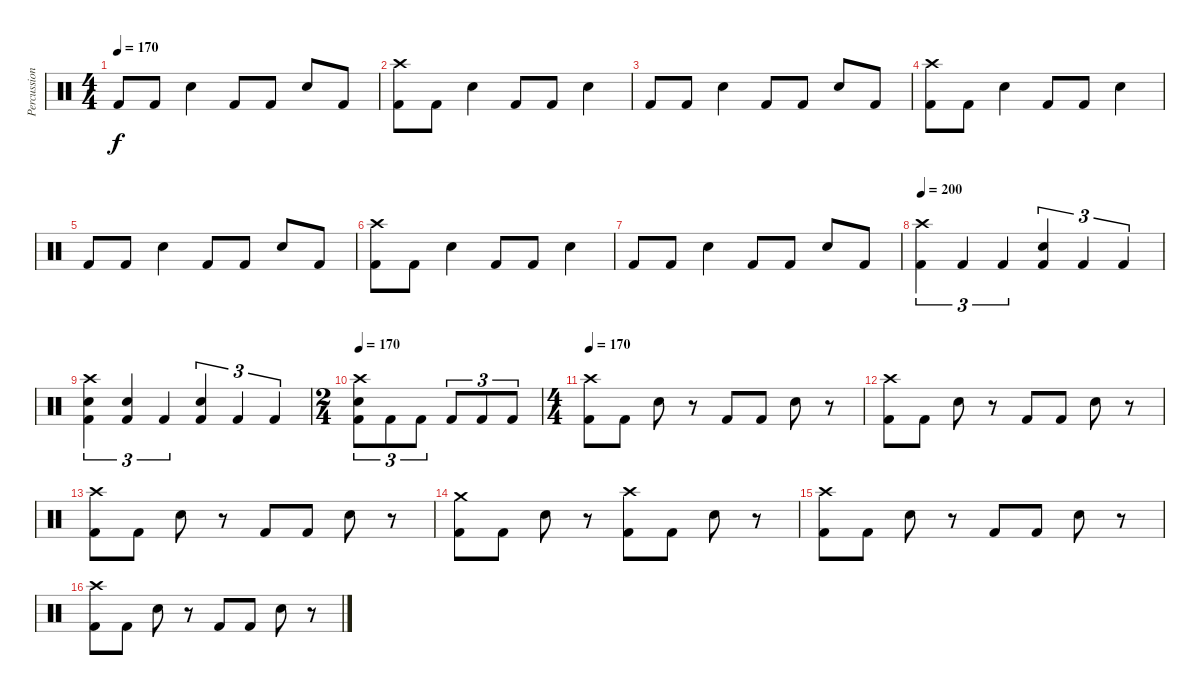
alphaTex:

\track ("Percussion" "Percussion") {instrument percussion}
\staff {score}
\articulation defaults
\ts (4 4)
\tempo 170
\clef neutral
\ks c "Kick (hit) 2".8{dy f} "Kick (hit) 2".8 "Electric Snare (hit)".4 "Kick (hit) 2".8 "Kick (hit) 2".8 "Electric Snare (hit)".8 "Kick (hit) 2".8
|
("Crash high (hit)" "Kick (hit) 2").8 "Kick (hit) 2".8 "Electric Snare (hit)".4 "Kick (hit) 2".8 "Kick (hit) 2".8 "Electric Snare (hit)".4 |
"Kick (hit) 2".8 "Kick (hit) 2".8 "Electric Snare (hit)".4 "Kick (hit) 2".8 "Kick (hit) 2".8 "Electric Snare (hit)".8 "Kick (hit) 2".8 |
("Crash high (hit)" "Kick (hit) 2").8 "Kick (hit) 2".8 "Electric Snare (hit)".4 "Kick (hit) 2".8 "Kick (hit) 2".8 "Electric Snare (hit)".4 |
"Kick (hit) 2".8 "Kick (hit) 2".8 "Electric Snare (hit)".4 "Kick (hit) 2".8 "Kick (hit) 2".8 "Electric Snare (hit)".8 "Kick (hit) 2".8 |
("Crash high (hit)" "Kick (hit) 2").8 "Kick (hit) 2".8 "Electric Snare (hit)".4 "Kick (hit) 2".8 "Kick (hit) 2".8 "Electric Snare (hit)".4 |
"Kick (hit) 2".8 "Kick (hit) 2".8 "Electric Snare (hit)".4 "Kick (hit) 2".8 "Kick (hit) 2".8 "Electric Snare (hit)".8 "Kick (hit) 2".8 |
\tempo 200
("Crash high (hit)" "Kick (hit) 2").4{tu (3 2)} "Kick (hit) 2".4{tu (3 2)} "Kick (hit) 2".4{tu (3 2)} ("Electric Snare (hit)" "Kick (hit) 2").4{tu (3 2)} "Kick (hit) 2".4{tu (3 2)} "Kick (hit) 2".4{tu (3 2)} |
("Crash high (hit)" "Electric Snare (hit)" "Kick (hit) 2").4{tu (3 2)} ("Electric Snare (hit)" "Kick (hit) 2").4{tu (3 2)} "Kick (hit) 2".4{tu (3 2)} ("Electric Snare (hit)" "Kick (hit) 2").4{tu (3 2)} "Kick (hit) 2".4{tu (3 2)} "Kick (hit) 2".4{tu (3 2)} |
\ts (2 4)
\tempo 170
("Crash high (hit)" "Electric Snare (hit)" "Kick (hit) 2").8{tu (3 2)} "Kick (hit) 2".8{tu (3 2)} "Kick (hit) 2".8{tu (3 2)} "Kick (hit) 2".8{tu (3 2)} "Kick (hit) 2".8{tu (3 2)} "Kick (hit) 2".8{tu (3 2)} |
\ts (4 4)
\tempo 170
("Crash high (hit)" "Kick (hit) 2").8 "Kick (hit) 2".8 "Electric Snare (hit)".8 r.8 "Kick (hit) 2".8 "Kick (hit) 2".8 "Electric Snare (hit)".8 r.8 |
("Crash high (hit)" "Kick (hit) 2").8 "Kick (hit) 2".8 "Electric Snare (hit)".8 r.8 "Kick (hit) 2".8 "Kick (hit) 2".8 "Electric Snare (hit)".8 r.8 |
("Crash high (hit)" "Kick (hit) 2").8 "Kick (hit) 2".8 "Electric Snare (hit)".8 r.8 "Kick (hit) 2".8 "Kick (hit) 2".8 "Electric Snare (hit)".8 r.8 |
("Crash medium (hit)" "Kick (hit) 2").8 "Kick (hit) 2".8 "Electric Snare (hit)".8 r.8 ("Crash high (hit)" "Kick (hit) 2").8 "Kick (hit) 2".8 "Electric Snare (hit)".8 r.8 |
("Crash high (hit)" "Kick (hit) 2").8 "Kick (hit) 2".8 "Electric Snare (hit)".8 r.8 "Kick (hit) 2".8 "Kick (hit) 2".8 "Electric Snare (hit)".8 r.8 |
("Crash high (hit)" "Kick (hit) 2").8 "Kick (hit) 2".8 "Electric Snare (hit)".8 r.8 "Kick (hit) 2".8 "Kick (hit) 2".8 "Electric Snare (hit)".8 r.8
